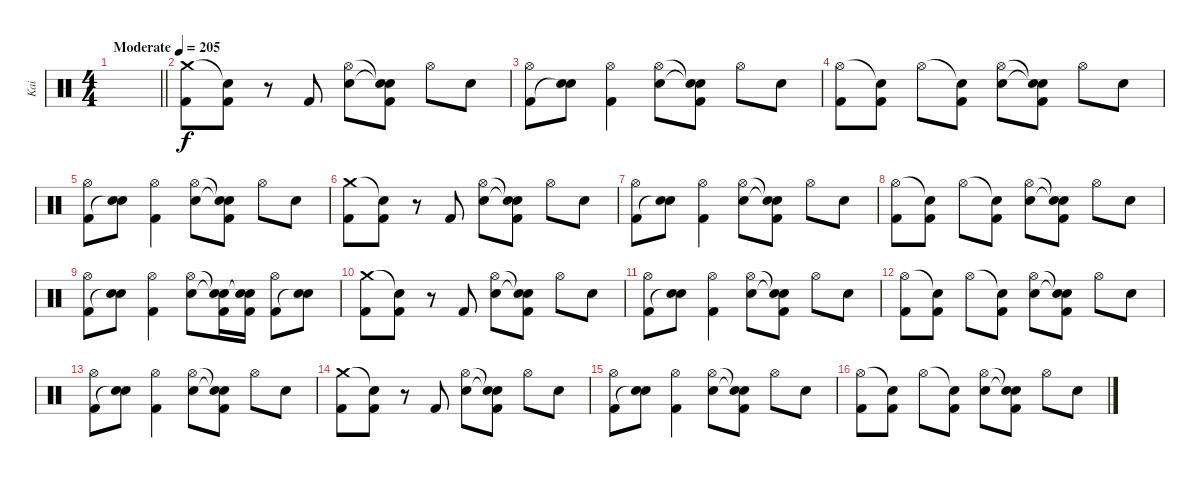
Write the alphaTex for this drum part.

\track ("Kai" "Kai") {instrument percussion}
\staff {score}
\articulation defaults
\ts (4 4)
\tempo (205 "Moderate")
\clef neutral
\barLineRight lightlight
\ks c
|
("Crash medium (hit)" "Kick (hit) 2").8 ("Snare (hit)"{t} "Kick (hit) 2").8 r.8 "Kick (hit) 2".8 ("Hi-Hat (open)" "Snare (hit) 2").8 ("Snare (hit)"{t} "Snare (hit)"{t} "Kick (hit) 2").8 "Hi-Hat (open)".8 "Snare (hit) 2".8 |
("Hi-Hat (open)" "Kick (hit) 2").8 ("Snare (hit) 2" "Snare (hit)"{t}).8 ("Hi-Hat (open)" "Kick (hit) 2").4 ("Hi-Hat (open)" "Snare (hit) 2").8 ("Snare (hit)"{t} "Snare (hit)"{t} "Kick (hit) 2").8 "Hi-Hat (open)".8 "Snare (hit) 2".8 |
("Hi-Hat (open)" "Kick (hit) 2").8 ("Snare (hit)"{t} "Kick (hit) 2").8 "Hi-Hat (open)".8 ("Snare (hit)"{t} "Kick (hit) 2").8 ("Hi-Hat (open)" "Snare (hit) 2").8 ("Snare (hit)"{t} "Snare (hit)"{t} "Kick (hit) 2").8 "Hi-Hat (open)".8 "Snare (hit) 2".8 |
("Hi-Hat (open)" "Kick (hit) 2").8 ("Snare (hit) 2" "Snare (hit)"{t}).8 ("Hi-Hat (open)" "Kick (hit) 2").4 ("Hi-Hat (open)" "Snare (hit) 2").8 ("Snare (hit)"{t} "Snare (hit)"{t} "Kick (hit) 2").8 "Hi-Hat (open)".8 "Snare (hit) 2".8 |
("Crash medium (hit)" "Kick (hit) 2").8 ("Snare (hit)"{t} "Kick (hit) 2").8 r.8 "Kick (hit) 2".8 ("Hi-Hat (open)" "Snare (hit) 2").8 ("Snare (hit)"{t} "Snare (hit)"{t} "Kick (hit) 2").8 "Hi-Hat (open)".8 "Snare (hit) 2".8 |
("Hi-Hat (open)" "Kick (hit) 2").8 ("Snare (hit) 2" "Snare (hit)"{t}).8 ("Hi-Hat (open)" "Kick (hit) 2").4 ("Hi-Hat (open)" "Snare (hit) 2").8 ("Snare (hit)"{t} "Snare (hit)"{t} "Kick (hit) 2").8 "Hi-Hat (open)".8 "Snare (hit) 2".8 |
("Hi-Hat (open)" "Kick (hit) 2").8 ("Snare (hit)"{t} "Kick (hit) 2").8 "Hi-Hat (open)".8 ("Snare (hit)"{t} "Kick (hit) 2").8 ("Hi-Hat (open)" "Snare (hit) 2").8 ("Snare (hit)"{t} "Snare (hit)"{t} "Kick (hit) 2").8 "Hi-Hat (open)".8 "Snare (hit) 2".8 |
("Hi-Hat (open)" "Kick (hit) 2").8 ("Snare (hit) 2" "Snare (hit)"{t}).8 ("Hi-Hat (open)" "Kick (hit) 2").4 ("Hi-Hat (open)" "Snare (hit) 2").8 ("Snare (hit)"{t} "Snare (hit)"{t} "Kick (hit) 2").16 ("Snare (hit)"{t} "Snare (hit)"{t} "Kick (hit) 2").16 ("Hi-Hat (open)" "Kick (hit) 2").8 ("Snare (hit) 2" "Snare (hit)"{t}).8 |
("Crash medium (hit)" "Kick (hit) 2").8 ("Snare (hit)"{t} "Kick (hit) 2").8 r.8 "Kick (hit) 2".8 ("Hi-Hat (open)" "Snare (hit) 2").8 ("Snare (hit)"{t} "Snare (hit)"{t} "Kick (hit) 2").8 "Hi-Hat (open)".8 "Snare (hit) 2".8 |
("Hi-Hat (open)" "Kick (hit) 2").8 ("Snare (hit) 2" "Snare (hit)"{t}).8 ("Hi-Hat (open)" "Kick (hit) 2").4 ("Hi-Hat (open)" "Snare (hit) 2").8 ("Snare (hit)"{t} "Snare (hit)"{t} "Kick (hit) 2").8 "Hi-Hat (open)".8 "Snare (hit) 2".8 |
("Hi-Hat (open)" "Kick (hit) 2").8 ("Snare (hit)"{t} "Kick (hit) 2").8 "Hi-Hat (open)".8 ("Snare (hit)"{t} "Kick (hit) 2").8 ("Hi-Hat (open)" "Snare (hit) 2").8 ("Snare (hit)"{t} "Snare (hit)"{t} "Kick (hit) 2").8 "Hi-Hat (open)".8 "Snare (hit) 2".8 |
("Hi-Hat (open)" "Kick (hit) 2").8 ("Snare (hit) 2" "Snare (hit)"{t}).8 ("Hi-Hat (open)" "Kick (hit) 2").4 ("Hi-Hat (open)" "Snare (hit) 2").8 ("Snare (hit)"{t} "Snare (hit)"{t} "Kick (hit) 2").8 "Hi-Hat (open)".8 "Snare (hit) 2".8 |
("Crash medium (hit)" "Kick (hit) 2").8 ("Snare (hit)"{t} "Kick (hit) 2").8 r.8 "Kick (hit) 2".8 ("Hi-Hat (open)" "Snare (hit) 2").8 ("Snare (hit)"{t} "Snare (hit)"{t} "Kick (hit) 2").8 "Hi-Hat (open)".8 "Snare (hit) 2".8 |
("Hi-Hat (open)" "Kick (hit) 2").8 ("Snare (hit) 2" "Snare (hit)"{t}).8 ("Hi-Hat (open)" "Kick (hit) 2").4 ("Hi-Hat (open)" "Snare (hit) 2").8 ("Snare (hit)"{t} "Snare (hit)"{t} "Kick (hit) 2").8 "Hi-Hat (open)".8 "Snare (hit) 2".8 |
("Hi-Hat (open)" "Kick (hit) 2").8 ("Snare (hit)"{t} "Kick (hit) 2").8 "Hi-Hat (open)".8 ("Snare (hit)"{t} "Kick (hit) 2").8 ("Hi-Hat (open)" "Snare (hit) 2").8 ("Snare (hit)"{t} "Snare (hit)"{t} "Kick (hit) 2").8 "Hi-Hat (open)".8 "Snare (hit) 2".8
